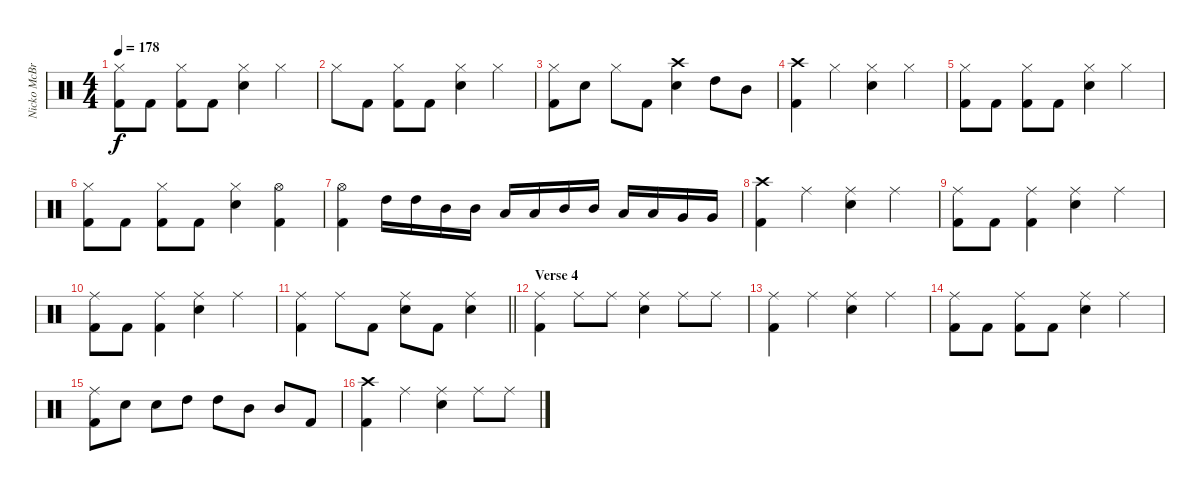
\track ("Nicko McBrian" "Nicko McBr") {instrument percussion}
\staff {score}
\articulation defaults
\ts (4 4)
\tempo 178
\clef neutral
\ks c
("Hi-Hat (closed)" "Kick (hit) 2").8{dy f} "Kick (hit) 2".8 ("Hi-Hat (closed)" "Kick (hit) 2").8 "Kick (hit) 2".8 ("Hi-Hat (closed)" "Electric Snare (hit)").4 "Hi-Hat (closed)".4 |
"Hi-Hat (closed)".8 "Kick (hit) 2".8 ("Hi-Hat (closed)" "Kick (hit) 2").8 "Kick (hit) 2".8 ("Hi-Hat (closed)" "Electric Snare (hit)").4 "Hi-Hat (closed)".4 |
("Hi-Hat (closed)" "Kick (hit) 2").8 "Electric Snare (hit)".8 "Hi-Hat (closed)".8 "Kick (hit) 2".8 ("Crash high (hit)" "Electric Snare (hit)").4 "High Tom (hit)".8 "Mid Tom (hit)".8 |
("Crash high (hit)" "Kick (hit) 2").4 "Hi-Hat (closed)".4 ("Hi-Hat (closed)" "Electric Snare (hit)").4 "Hi-Hat (closed)".4 |
("Hi-Hat (closed)" "Kick (hit) 2").8 "Kick (hit) 2".8 ("Hi-Hat (closed)" "Kick (hit) 2").8 "Kick (hit) 2".8 ("Hi-Hat (closed)" "Electric Snare (hit)").4 "Hi-Hat (closed)".4 |
("Hi-Hat (closed)" "Kick (hit) 2").8 "Kick (hit) 2".8 ("Hi-Hat (closed)" "Kick (hit) 2").8 "Kick (hit) 2".8 ("Hi-Hat (closed)" "Electric Snare (hit)").4 ("Hi-Hat (open)" "Kick (hit) 2").4 |
("Hi-Hat (open)" "Kick (hit) 2").4 "High Tom (hit)".16 "High Tom (hit)".16 "Mid Tom (hit)".16 "Mid Tom (hit)".16 "Low Tom (hit)".16 "Low Tom (hit)".16 "Mid Tom (hit)".16 "Mid Tom (hit)".16 "Low Tom (hit)".16 "Low Tom (hit)".16 "Very Low Tom (hit)".16 "Very Low Tom (hit)".16 |
("Crash high (hit)" "Kick (hit) 2").4 "Ride (middle)".4 ("Ride (middle)" "Electric Snare (hit)").4 "Ride (middle)".4 |
("Ride (middle)" "Kick (hit) 2").8 "Kick (hit) 2".8 ("Ride (middle)" "Kick (hit) 2").4 ("Ride (middle)" "Electric Snare (hit)").4 "Ride (middle)".4 |
("Ride (middle)" "Kick (hit) 2").8 "Kick (hit) 2".8 ("Ride (middle)" "Kick (hit) 2").4 ("Ride (middle)" "Electric Snare (hit)").4 "Ride (middle)".4 |
\barLineRight lightlight
("Ride (middle)" "Kick (hit) 2").4 "Ride (middle)".8 "Kick (hit) 2".8 ("Ride (middle)" "Electric Snare (hit)").8 "Kick (hit) 2".8 ("Ride (middle)" "Electric Snare (hit)").4 |
\section ("" "Verse 4")
("Ride (middle)" "Kick (hit) 2").4 "Ride (middle)".8 "Ride (middle)".8 ("Ride (middle)" "Electric Snare (hit)").4 "Ride (middle)".8 "Ride (middle)".8 |
("Ride (middle)" "Kick (hit) 2").4 "Ride (middle)".4 ("Ride (middle)" "Electric Snare (hit)").4 "Ride (middle)".4 |
("Ride (middle)" "Kick (hit) 2").8 "Kick (hit) 2".8 ("Ride (middle)" "Kick (hit) 2").8 "Kick (hit) 2".8 ("Ride (middle)" "Electric Snare (hit)").4 "Ride (middle)".4 |
("Ride (middle)" "Kick (hit) 2").8 "Electric Snare (hit)".8 "Electric Snare (hit)".8 "High Tom (hit)".8 "High Tom (hit)".8 "Mid Tom (hit)".8 "Mid Tom (hit)".8 "Kick (hit) 2".8 |
("Crash high (hit)" "Kick (hit) 2").4 "Ride (middle)".4 ("Ride (middle)" "Electric Snare (hit)").4 "Ride (middle)".8 "Ride (middle)".8
